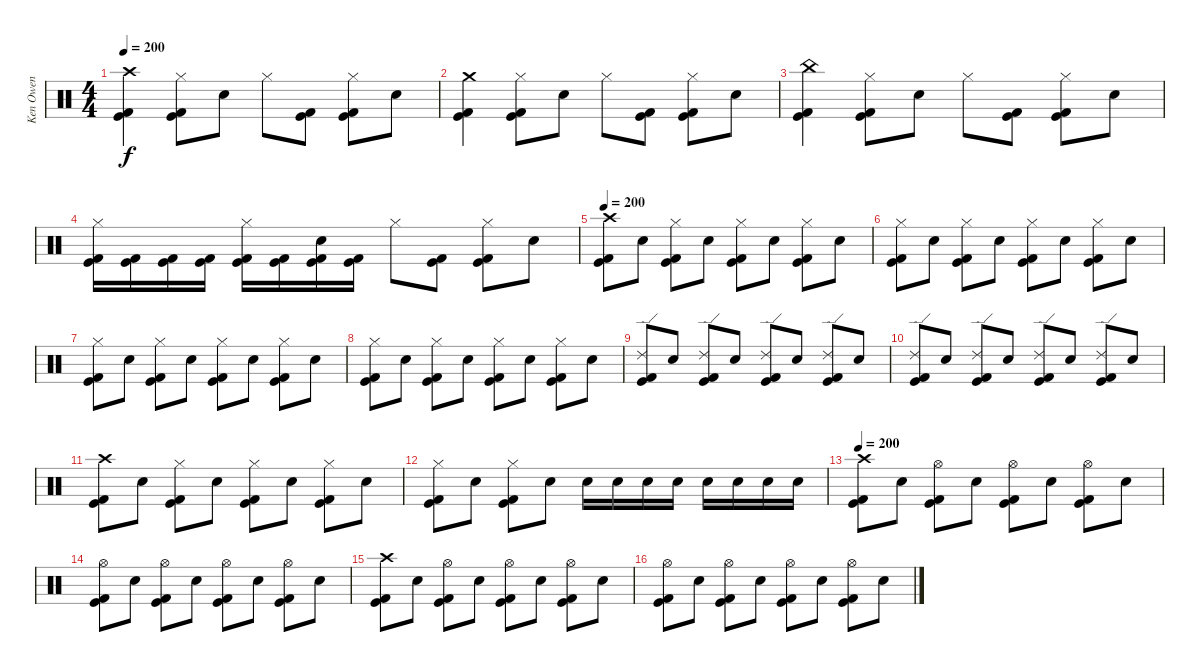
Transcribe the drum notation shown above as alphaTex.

\track ("Ken Owen" "Ken Owen") {instrument percussion}
\staff {score}
\articulation defaults
\ts (4 4)
\tempo 200
\clef neutral
\ks c
("Crash high (hit)" "Kick (hit)" "Kick (hit) 2").4{dy f} ("Hi-Hat (closed)" "Kick (hit)" "Kick (hit) 2").8 "Electric Snare (hit)".8 "Hi-Hat (closed)".8 ("Kick (hit)" "Kick (hit) 2").8 ("Hi-Hat (closed)" "Kick (hit)" "Kick (hit) 2").8 "Electric Snare (hit)".8 |
("Crash medium (hit)" "Kick (hit)" "Kick (hit) 2").4 ("Hi-Hat (closed)" "Kick (hit)" "Kick (hit) 2").8 "Electric Snare (hit)".8 "Hi-Hat (closed)".8 ("Kick (hit)" "Kick (hit) 2").8 ("Hi-Hat (closed)" "Kick (hit)" "Kick (hit) 2").8 "Electric Snare (hit)".8 |
("China (hit)" "Kick (hit)" "Kick (hit) 2").4 ("Hi-Hat (closed)" "Kick (hit)" "Kick (hit) 2").8 "Electric Snare (hit)".8 "Hi-Hat (closed)".8 ("Kick (hit)" "Kick (hit) 2").8 ("Hi-Hat (closed)" "Kick (hit)" "Kick (hit) 2").8 "Electric Snare (hit)".8 |
("Hi-Hat (closed)" "Kick (hit)" "Kick (hit) 2").16 ("Kick (hit)" "Kick (hit) 2").16 ("Kick (hit)" "Kick (hit) 2").16 ("Kick (hit)" "Kick (hit) 2").16 ("Hi-Hat (closed)" "Kick (hit)" "Kick (hit) 2").16 ("Kick (hit)" "Kick (hit) 2").16 ("Electric Snare (hit)" "Kick (hit)" "Kick (hit) 2").16 ("Kick (hit)" "Kick (hit) 2").16 "Hi-Hat (closed)".8 ("Kick (hit)" "Kick (hit) 2").8 ("Hi-Hat (closed)" "Kick (hit)" "Kick (hit) 2").8 "Electric Snare (hit)".8 |
\tempo 200
("Crash high (hit)" "Kick (hit)" "Kick (hit) 2").8 "Electric Snare (hit)".8 ("Hi-Hat (closed)" "Kick (hit)" "Kick (hit) 2").8 "Electric Snare (hit)".8 ("Hi-Hat (closed)" "Kick (hit)" "Kick (hit) 2").8 "Electric Snare (hit)".8 ("Hi-Hat (closed)" "Kick (hit)" "Kick (hit) 2").8 "Electric Snare (hit)".8 |
("Hi-Hat (closed)" "Kick (hit)" "Kick (hit) 2").8 "Electric Snare (hit)".8 ("Hi-Hat (closed)" "Kick (hit)" "Kick (hit) 2").8 "Electric Snare (hit)".8 ("Hi-Hat (closed)" "Kick (hit)" "Kick (hit) 2").8 "Electric Snare (hit)".8 ("Hi-Hat (closed)" "Kick (hit)" "Kick (hit) 2").8 "Electric Snare (hit)".8 |
("Hi-Hat (closed)" "Kick (hit)" "Kick (hit) 2").8 "Electric Snare (hit)".8 ("Hi-Hat (closed)" "Kick (hit)" "Kick (hit) 2").8 "Electric Snare (hit)".8 ("Hi-Hat (closed)" "Kick (hit)" "Kick (hit) 2").8 "Electric Snare (hit)".8 ("Hi-Hat (closed)" "Kick (hit)" "Kick (hit) 2").8 "Electric Snare (hit)".8 |
("Hi-Hat (closed)" "Kick (hit)" "Kick (hit) 2").8 "Electric Snare (hit)".8 ("Hi-Hat (closed)" "Kick (hit)" "Kick (hit) 2").8 "Electric Snare (hit)".8 ("Hi-Hat (closed)" "Kick (hit)" "Kick (hit) 2").8 "Electric Snare (hit)".8 ("Hi-Hat (closed)" "Kick (hit)" "Kick (hit) 2").8 "Electric Snare (hit)".8 |
("Ride (edge) 2" "Kick (hit)" "Kick (hit) 2").8 "Electric Snare (hit)".8 ("Ride (edge) 2" "Kick (hit)" "Kick (hit) 2").8 "Electric Snare (hit)".8 ("Ride (edge) 2" "Kick (hit)" "Kick (hit) 2").8 "Electric Snare (hit)".8 ("Ride (edge) 2" "Kick (hit)" "Kick (hit) 2").8 "Electric Snare (hit)".8 |
("Ride (edge) 2" "Kick (hit)" "Kick (hit) 2").8 "Electric Snare (hit)".8 ("Ride (edge) 2" "Kick (hit)" "Kick (hit) 2").8 "Electric Snare (hit)".8 ("Ride (edge) 2" "Kick (hit)" "Kick (hit) 2").8 "Electric Snare (hit)".8 ("Ride (edge) 2" "Kick (hit)" "Kick (hit) 2").8 "Electric Snare (hit)".8 |
("Crash high (hit)" "Kick (hit)" "Kick (hit) 2").8 "Electric Snare (hit)".8 ("Hi-Hat (closed)" "Kick (hit)" "Kick (hit) 2").8 "Electric Snare (hit)".8 ("Hi-Hat (closed)" "Kick (hit)" "Kick (hit) 2").8 "Electric Snare (hit)".8 ("Hi-Hat (closed)" "Kick (hit)" "Kick (hit) 2").8 "Electric Snare (hit)".8 |
("Hi-Hat (closed)" "Kick (hit)" "Kick (hit) 2").8 "Electric Snare (hit)".8 ("Hi-Hat (closed)" "Kick (hit)" "Kick (hit) 2").8 "Electric Snare (hit)".8 "Electric Snare (hit)".16 "Electric Snare (hit)".16 "Electric Snare (hit)".16 "Electric Snare (hit)".16 "Electric Snare (hit)".16 "Electric Snare (hit)".16 "Electric Snare (hit)".16 "Electric Snare (hit)".16 |
\tempo 200
("Crash high (hit)" "Kick (hit)" "Kick (hit) 2").8 "Electric Snare (hit)".8 ("Hi-Hat (open)" "Kick (hit)" "Kick (hit) 2").8 "Electric Snare (hit)".8 ("Hi-Hat (open)" "Kick (hit)" "Kick (hit) 2").8 "Electric Snare (hit)".8 ("Hi-Hat (open)" "Kick (hit)" "Kick (hit) 2").8 "Electric Snare (hit)".8 |
("Hi-Hat (open)" "Kick (hit)" "Kick (hit) 2").8 "Electric Snare (hit)".8 ("Hi-Hat (open)" "Kick (hit)" "Kick (hit) 2").8 "Electric Snare (hit)".8 ("Hi-Hat (open)" "Kick (hit)" "Kick (hit) 2").8 "Electric Snare (hit)".8 ("Hi-Hat (open)" "Kick (hit)" "Kick (hit) 2").8 "Electric Snare (hit)".8 |
("Crash high (hit)" "Kick (hit)" "Kick (hit) 2").8 "Electric Snare (hit)".8 ("Hi-Hat (open)" "Kick (hit)" "Kick (hit) 2").8 "Electric Snare (hit)".8 ("Hi-Hat (open)" "Kick (hit)" "Kick (hit) 2").8 "Electric Snare (hit)".8 ("Hi-Hat (open)" "Kick (hit)" "Kick (hit) 2").8 "Electric Snare (hit)".8 |
("Hi-Hat (open)" "Kick (hit)" "Kick (hit) 2").8 "Electric Snare (hit)".8 ("Hi-Hat (open)" "Kick (hit)" "Kick (hit) 2").8 "Electric Snare (hit)".8 ("Hi-Hat (open)" "Kick (hit)" "Kick (hit) 2").8 "Electric Snare (hit)".8 ("Hi-Hat (open)" "Kick (hit)" "Kick (hit) 2").8 "Electric Snare (hit)".8
